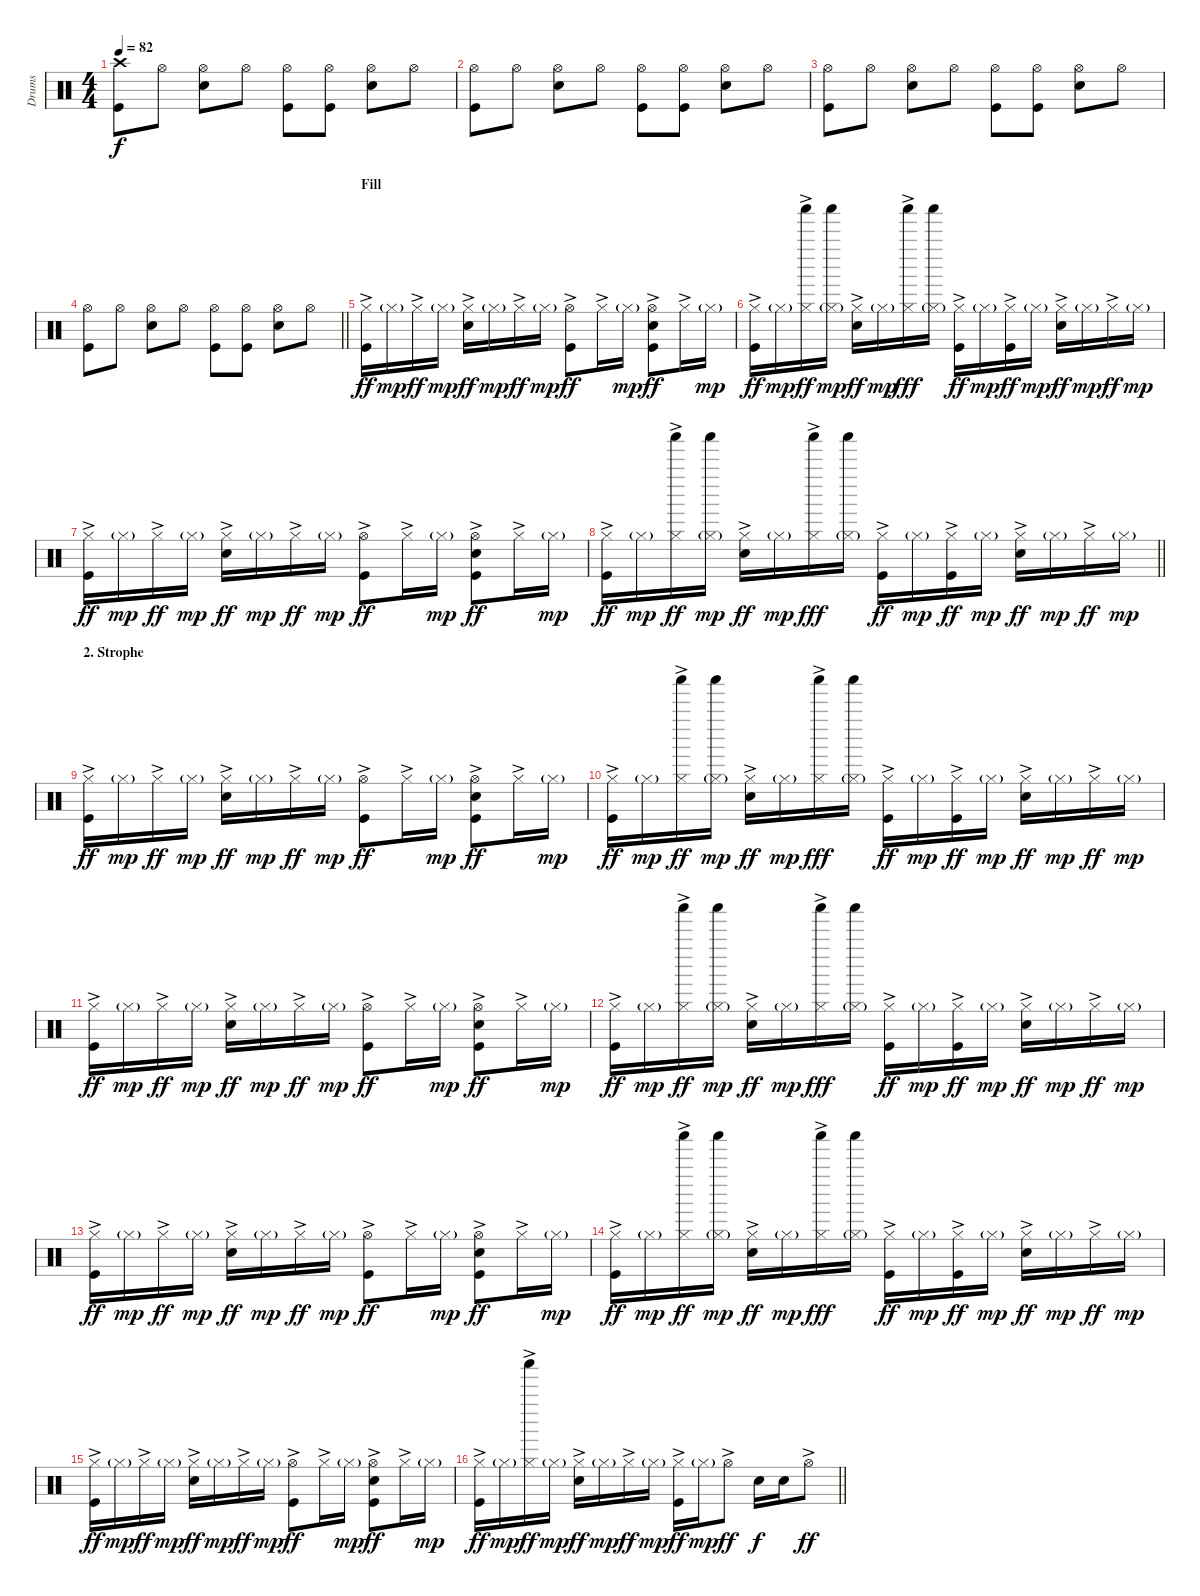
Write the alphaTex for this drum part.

\track ("Drums" "Drums") {instrument percussion}
\staff {score}
\articulation defaults
\ts (4 4)
\tempo 82
\clef neutral
\ks c
("Crash high (hit)" "Kick (hit)").8{dy f} "Hi-Hat (open)".8 ("Hi-Hat (open)" "Snare (hit) 2").8 "Hi-Hat (open)".8 ("Hi-Hat (open)" "Kick (hit)").8 ("Hi-Hat (open)" "Kick (hit)").8 ("Hi-Hat (open)" "Snare (hit) 2").8 "Hi-Hat (open)".8 |
("Hi-Hat (open)" "Kick (hit)").8 "Hi-Hat (open)".8 ("Hi-Hat (open)" "Snare (hit) 2").8 "Hi-Hat (open)".8 ("Hi-Hat (open)" "Kick (hit)").8 ("Hi-Hat (open)" "Kick (hit)").8 ("Hi-Hat (open)" "Snare (hit) 2").8 "Hi-Hat (open)".8 |
("Hi-Hat (open)" "Kick (hit)").8 "Hi-Hat (open)".8 ("Hi-Hat (open)" "Snare (hit) 2").8 "Hi-Hat (open)".8 ("Hi-Hat (open)" "Kick (hit)").8 ("Hi-Hat (open)" "Kick (hit)").8 ("Hi-Hat (open)" "Snare (hit) 2").8 "Hi-Hat (open)".8 |
\barLineRight lightlight
("Hi-Hat (open)" "Kick (hit)").8 "Hi-Hat (open)".8 ("Hi-Hat (open)" "Snare (hit) 2").8 "Hi-Hat (open)".8 ("Hi-Hat (open)" "Kick (hit)").8 ("Hi-Hat (open)" "Kick (hit)").8 ("Hi-Hat (open)" "Snare (hit) 2").8 "Hi-Hat (open)".8 |
\section ("" "Fill")
("Hi-Hat (closed)"{ac} "Kick (hit)").16{dy ff} "Hi-Hat (closed)"{g}.16{dy mp} "Hi-Hat (closed)"{ac}.16{dy ff} "Hi-Hat (closed)"{g}.16{dy mp} ("Hi-Hat (closed)"{ac} "Snare (hit) 2").16{dy ff} "Hi-Hat (closed)"{g}.16{dy mp} "Hi-Hat (closed)"{ac}.16{dy ff} "Hi-Hat (closed)"{g}.16{dy mp} ("Hi-Hat (open)"{ac} "Kick (hit)").8{dy ff} "Hi-Hat (closed)"{ac}.16 "Hi-Hat (closed)"{g}.16{dy mp} ("Hi-Hat (open)"{ac} "Snare (hit) 2" "Kick (hit)").8{dy ff} "Hi-Hat (closed)"{ac}.16 "Hi-Hat (closed)"{g}.16{dy mp} |
("Hi-Hat (closed)"{ac} "Kick (hit)").16{dy ff} "Hi-Hat (closed)"{g}.16{dy mp} ("Hi-Hat (closed)"{ac} "Shaker (hit)").16{dy ff} ("Hi-Hat (closed)"{g} "Shaker (hit)").16{dy mp} ("Hi-Hat (closed)"{ac} "Snare (hit) 2").16{dy ff} "Hi-Hat (closed)"{g}.16{dy mp} ("Hi-Hat (closed)"{ac} "Shaker (hit)").16{dy fff} ("Hi-Hat (closed)"{g} "Shaker (hit)").16 ("Hi-Hat (closed)"{ac} "Kick (hit)").16{dy ff} "Hi-Hat (closed)"{g}.16{dy mp} ("Hi-Hat (closed)"{ac} "Kick (hit)").16{dy ff} "Hi-Hat (closed)"{g}.16{dy mp} ("Hi-Hat (closed)"{ac} "Snare (hit) 2").16{dy ff} "Hi-Hat (closed)"{g}.16{dy mp} "Hi-Hat (closed)"{ac}.16{dy ff} "Hi-Hat (closed)"{g}.16{dy mp} |
("Hi-Hat (closed)"{ac} "Kick (hit)").16{dy ff} "Hi-Hat (closed)"{g}.16{dy mp} "Hi-Hat (closed)"{ac}.16{dy ff} "Hi-Hat (closed)"{g}.16{dy mp} ("Hi-Hat (closed)"{ac} "Snare (hit) 2").16{dy ff} "Hi-Hat (closed)"{g}.16{dy mp} "Hi-Hat (closed)"{ac}.16{dy ff} "Hi-Hat (closed)"{g}.16{dy mp} ("Hi-Hat (open)"{ac} "Kick (hit)").8{dy ff} "Hi-Hat (closed)"{ac}.16 "Hi-Hat (closed)"{g}.16{dy mp} ("Hi-Hat (open)"{ac} "Snare (hit) 2" "Kick (hit)").8{dy ff} "Hi-Hat (closed)"{ac}.16 "Hi-Hat (closed)"{g}.16{dy mp} |
\barLineRight lightlight
("Hi-Hat (closed)"{ac} "Kick (hit)").16{dy ff} "Hi-Hat (closed)"{g}.16{dy mp} ("Hi-Hat (closed)"{ac} "Shaker (hit)").16{dy ff} ("Hi-Hat (closed)"{g} "Shaker (hit)").16{dy mp} ("Hi-Hat (closed)"{ac} "Snare (hit) 2").16{dy ff} "Hi-Hat (closed)"{g}.16{dy mp} ("Hi-Hat (closed)"{ac} "Shaker (hit)").16{dy fff} ("Hi-Hat (closed)"{g} "Shaker (hit)").16 ("Hi-Hat (closed)"{ac} "Kick (hit)").16{dy ff} "Hi-Hat (closed)"{g}.16{dy mp} ("Hi-Hat (closed)"{ac} "Kick (hit)").16{dy ff} "Hi-Hat (closed)"{g}.16{dy mp} ("Hi-Hat (closed)"{ac} "Snare (hit) 2").16{dy ff} "Hi-Hat (closed)"{g}.16{dy mp} "Hi-Hat (closed)"{ac}.16{dy ff} "Hi-Hat (closed)"{g}.16{dy mp} |
\section ("" "2. Strophe")
("Hi-Hat (closed)"{ac} "Kick (hit)").16{dy ff} "Hi-Hat (closed)"{g}.16{dy mp} "Hi-Hat (closed)"{ac}.16{dy ff} "Hi-Hat (closed)"{g}.16{dy mp} ("Hi-Hat (closed)"{ac} "Snare (hit) 2").16{dy ff} "Hi-Hat (closed)"{g}.16{dy mp} "Hi-Hat (closed)"{ac}.16{dy ff} "Hi-Hat (closed)"{g}.16{dy mp} ("Hi-Hat (open)"{ac} "Kick (hit)").8{dy ff} "Hi-Hat (closed)"{ac}.16 "Hi-Hat (closed)"{g}.16{dy mp} ("Hi-Hat (open)"{ac} "Snare (hit) 2" "Kick (hit)").8{dy ff} "Hi-Hat (closed)"{ac}.16 "Hi-Hat (closed)"{g}.16{dy mp} |
("Hi-Hat (closed)"{ac} "Kick (hit)").16{dy ff} "Hi-Hat (closed)"{g}.16{dy mp} ("Hi-Hat (closed)"{ac} "Shaker (hit)").16{dy ff} ("Hi-Hat (closed)"{g} "Shaker (hit)").16{dy mp} ("Hi-Hat (closed)"{ac} "Snare (hit) 2").16{dy ff} "Hi-Hat (closed)"{g}.16{dy mp} ("Hi-Hat (closed)"{ac} "Shaker (hit)").16{dy fff} ("Hi-Hat (closed)"{g} "Shaker (hit)").16 ("Hi-Hat (closed)"{ac} "Kick (hit)").16{dy ff} "Hi-Hat (closed)"{g}.16{dy mp} ("Hi-Hat (closed)"{ac} "Kick (hit)").16{dy ff} "Hi-Hat (closed)"{g}.16{dy mp} ("Hi-Hat (closed)"{ac} "Snare (hit) 2").16{dy ff} "Hi-Hat (closed)"{g}.16{dy mp} "Hi-Hat (closed)"{ac}.16{dy ff} "Hi-Hat (closed)"{g}.16{dy mp} |
("Hi-Hat (closed)"{ac} "Kick (hit)").16{dy ff} "Hi-Hat (closed)"{g}.16{dy mp} "Hi-Hat (closed)"{ac}.16{dy ff} "Hi-Hat (closed)"{g}.16{dy mp} ("Hi-Hat (closed)"{ac} "Snare (hit) 2").16{dy ff} "Hi-Hat (closed)"{g}.16{dy mp} "Hi-Hat (closed)"{ac}.16{dy ff} "Hi-Hat (closed)"{g}.16{dy mp} ("Hi-Hat (open)"{ac} "Kick (hit)").8{dy ff} "Hi-Hat (closed)"{ac}.16 "Hi-Hat (closed)"{g}.16{dy mp} ("Hi-Hat (open)"{ac} "Snare (hit) 2" "Kick (hit)").8{dy ff} "Hi-Hat (closed)"{ac}.16 "Hi-Hat (closed)"{g}.16{dy mp} |
("Hi-Hat (closed)"{ac} "Kick (hit)").16{dy ff} "Hi-Hat (closed)"{g}.16{dy mp} ("Hi-Hat (closed)"{ac} "Shaker (hit)").16{dy ff} ("Hi-Hat (closed)"{g} "Shaker (hit)").16{dy mp} ("Hi-Hat (closed)"{ac} "Snare (hit) 2").16{dy ff} "Hi-Hat (closed)"{g}.16{dy mp} ("Hi-Hat (closed)"{ac} "Shaker (hit)").16{dy fff} ("Hi-Hat (closed)"{g} "Shaker (hit)").16 ("Hi-Hat (closed)"{ac} "Kick (hit)").16{dy ff} "Hi-Hat (closed)"{g}.16{dy mp} ("Hi-Hat (closed)"{ac} "Kick (hit)").16{dy ff} "Hi-Hat (closed)"{g}.16{dy mp} ("Hi-Hat (closed)"{ac} "Snare (hit) 2").16{dy ff} "Hi-Hat (closed)"{g}.16{dy mp} "Hi-Hat (closed)"{ac}.16{dy ff} "Hi-Hat (closed)"{g}.16{dy mp} |
("Hi-Hat (closed)"{ac} "Kick (hit)").16{dy ff} "Hi-Hat (closed)"{g}.16{dy mp} "Hi-Hat (closed)"{ac}.16{dy ff} "Hi-Hat (closed)"{g}.16{dy mp} ("Hi-Hat (closed)"{ac} "Snare (hit) 2").16{dy ff} "Hi-Hat (closed)"{g}.16{dy mp} "Hi-Hat (closed)"{ac}.16{dy ff} "Hi-Hat (closed)"{g}.16{dy mp} ("Hi-Hat (open)"{ac} "Kick (hit)").8{dy ff} "Hi-Hat (closed)"{ac}.16 "Hi-Hat (closed)"{g}.16{dy mp} ("Hi-Hat (open)"{ac} "Snare (hit) 2" "Kick (hit)").8{dy ff} "Hi-Hat (closed)"{ac}.16 "Hi-Hat (closed)"{g}.16{dy mp} |
("Hi-Hat (closed)"{ac} "Kick (hit)").16{dy ff} "Hi-Hat (closed)"{g}.16{dy mp} ("Hi-Hat (closed)"{ac} "Shaker (hit)").16{dy ff} ("Hi-Hat (closed)"{g} "Shaker (hit)").16{dy mp} ("Hi-Hat (closed)"{ac} "Snare (hit) 2").16{dy ff} "Hi-Hat (closed)"{g}.16{dy mp} ("Hi-Hat (closed)"{ac} "Shaker (hit)").16{dy fff} ("Hi-Hat (closed)"{g} "Shaker (hit)").16 ("Hi-Hat (closed)"{ac} "Kick (hit)").16{dy ff} "Hi-Hat (closed)"{g}.16{dy mp} ("Hi-Hat (closed)"{ac} "Kick (hit)").16{dy ff} "Hi-Hat (closed)"{g}.16{dy mp} ("Hi-Hat (closed)"{ac} "Snare (hit) 2").16{dy ff} "Hi-Hat (closed)"{g}.16{dy mp} "Hi-Hat (closed)"{ac}.16{dy ff} "Hi-Hat (closed)"{g}.16{dy mp} |
("Hi-Hat (closed)"{ac} "Kick (hit)").16{dy ff} "Hi-Hat (closed)"{g}.16{dy mp} "Hi-Hat (closed)"{ac}.16{dy ff} "Hi-Hat (closed)"{g}.16{dy mp} ("Hi-Hat (closed)"{ac} "Snare (hit) 2").16{dy ff} "Hi-Hat (closed)"{g}.16{dy mp} "Hi-Hat (closed)"{ac}.16{dy ff} "Hi-Hat (closed)"{g}.16{dy mp} ("Hi-Hat (open)"{ac} "Kick (hit)").8{dy ff} "Hi-Hat (closed)"{ac}.16 "Hi-Hat (closed)"{g}.16{dy mp} ("Hi-Hat (open)"{ac} "Snare (hit) 2" "Kick (hit)").8{dy ff} "Hi-Hat (closed)"{ac}.16 "Hi-Hat (closed)"{g}.16{dy mp} |
\barLineRight lightlight
("Hi-Hat (closed)"{ac} "Kick (hit)").16{dy ff} "Hi-Hat (closed)"{g}.16{dy mp} ("Hi-Hat (closed)"{ac} "Shaker (hit)").16{dy ff} "Hi-Hat (closed)"{g}.16{dy mp} ("Hi-Hat (closed)"{ac} "Snare (hit) 2").16{dy ff} "Hi-Hat (closed)"{g}.16{dy mp} "Hi-Hat (closed)"{ac}.16{dy ff} "Hi-Hat (closed)"{g}.16{dy mp} ("Hi-Hat (closed)"{ac} "Kick (hit)").16{dy ff} "Hi-Hat (closed)"{g}.16{dy mp} "Hi-Hat (open)"{ac}.8{dy ff} "Snare (hit) 2".16{dy f} "Snare (hit) 2".16 "Hi-Hat (open)"{ac}.8{dy ff}
